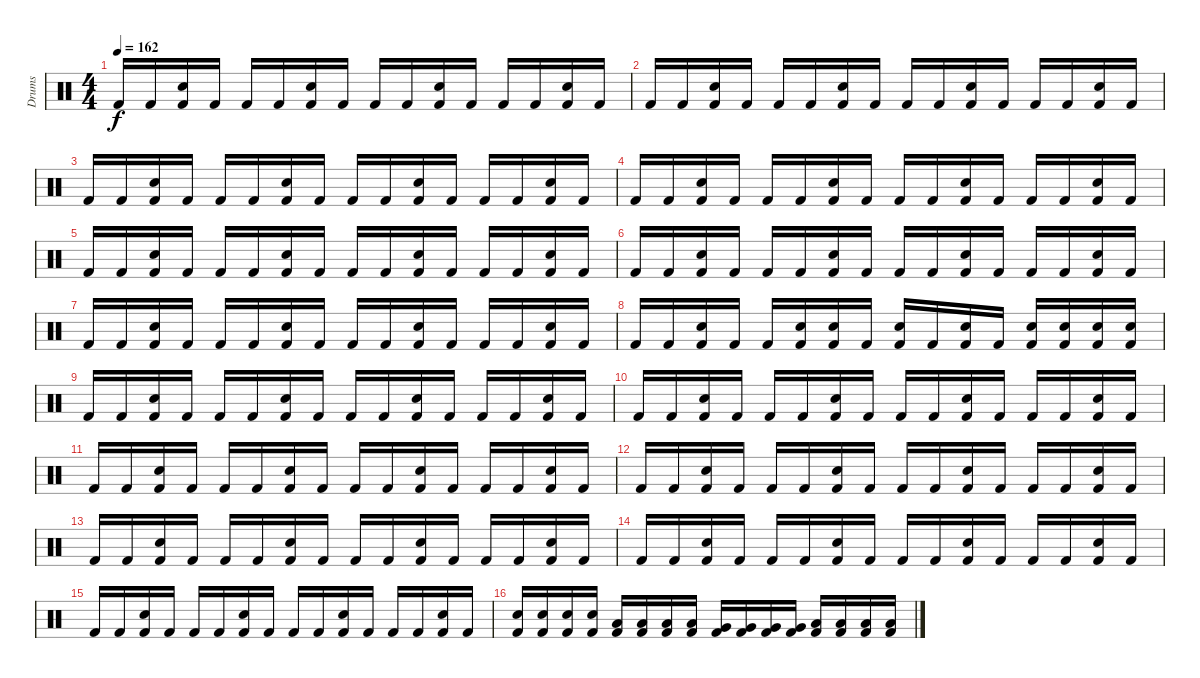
\track ("Drums" "Drums") {instrument percussion}
\staff {score}
\articulation defaults
\ts (4 4)
\tempo 162
\clef neutral
\ks c "Kick (hit) 2".16{dy f} "Kick (hit) 2".16
("Electric Snare (hit)" "Kick (hit) 2").16 "Kick (hit) 2".16 "Kick (hit) 2".16 "Kick (hit) 2".16 ("Electric Snare (hit)" "Kick (hit) 2").16 "Kick (hit) 2".16 "Kick (hit) 2".16 "Kick (hit) 2".16 ("Electric Snare (hit)" "Kick (hit) 2").16 "Kick (hit) 2".16 "Kick (hit) 2".16 "Kick (hit) 2".16 ("Electric Snare (hit)" "Kick (hit) 2").16 "Kick (hit) 2".16 |
"Kick (hit) 2".16 "Kick (hit) 2".16 ("Electric Snare (hit)" "Kick (hit) 2").16 "Kick (hit) 2".16 "Kick (hit) 2".16 "Kick (hit) 2".16 ("Electric Snare (hit)" "Kick (hit) 2").16 "Kick (hit) 2".16 "Kick (hit) 2".16 "Kick (hit) 2".16 ("Electric Snare (hit)" "Kick (hit) 2").16 "Kick (hit) 2".16 "Kick (hit) 2".16 "Kick (hit) 2".16 ("Electric Snare (hit)" "Kick (hit) 2").16 "Kick (hit) 2".16 |
"Kick (hit) 2".16 "Kick (hit) 2".16 ("Electric Snare (hit)" "Kick (hit) 2").16 "Kick (hit) 2".16 "Kick (hit) 2".16 "Kick (hit) 2".16 ("Electric Snare (hit)" "Kick (hit) 2").16 "Kick (hit) 2".16 "Kick (hit) 2".16 "Kick (hit) 2".16 ("Electric Snare (hit)" "Kick (hit) 2").16 "Kick (hit) 2".16 "Kick (hit) 2".16 "Kick (hit) 2".16 ("Electric Snare (hit)" "Kick (hit) 2").16 "Kick (hit) 2".16 |
"Kick (hit) 2".16 "Kick (hit) 2".16 ("Electric Snare (hit)" "Kick (hit) 2").16 "Kick (hit) 2".16 "Kick (hit) 2".16 "Kick (hit) 2".16 ("Electric Snare (hit)" "Kick (hit) 2").16 "Kick (hit) 2".16 "Kick (hit) 2".16 "Kick (hit) 2".16 ("Electric Snare (hit)" "Kick (hit) 2").16 "Kick (hit) 2".16 "Kick (hit) 2".16 "Kick (hit) 2".16 ("Electric Snare (hit)" "Kick (hit) 2").16 "Kick (hit) 2".16 |
"Kick (hit) 2".16 "Kick (hit) 2".16 ("Electric Snare (hit)" "Kick (hit) 2").16 "Kick (hit) 2".16 "Kick (hit) 2".16 "Kick (hit) 2".16 ("Electric Snare (hit)" "Kick (hit) 2").16 "Kick (hit) 2".16 "Kick (hit) 2".16 "Kick (hit) 2".16 ("Electric Snare (hit)" "Kick (hit) 2").16 "Kick (hit) 2".16 "Kick (hit) 2".16 "Kick (hit) 2".16 ("Electric Snare (hit)" "Kick (hit) 2").16 "Kick (hit) 2".16 |
"Kick (hit) 2".16 "Kick (hit) 2".16 ("Electric Snare (hit)" "Kick (hit) 2").16 "Kick (hit) 2".16 "Kick (hit) 2".16 "Kick (hit) 2".16 ("Electric Snare (hit)" "Kick (hit) 2").16 "Kick (hit) 2".16 "Kick (hit) 2".16 "Kick (hit) 2".16 ("Electric Snare (hit)" "Kick (hit) 2").16 "Kick (hit) 2".16 "Kick (hit) 2".16 "Kick (hit) 2".16 ("Electric Snare (hit)" "Kick (hit) 2").16 "Kick (hit) 2".16 |
"Kick (hit) 2".16 "Kick (hit) 2".16 ("Electric Snare (hit)" "Kick (hit) 2").16 "Kick (hit) 2".16 "Kick (hit) 2".16 "Kick (hit) 2".16 ("Electric Snare (hit)" "Kick (hit) 2").16 "Kick (hit) 2".16 "Kick (hit) 2".16 "Kick (hit) 2".16 ("Electric Snare (hit)" "Kick (hit) 2").16 "Kick (hit) 2".16 "Kick (hit) 2".16 "Kick (hit) 2".16 ("Electric Snare (hit)" "Kick (hit) 2").16 "Kick (hit) 2".16 |
"Kick (hit) 2".16 "Kick (hit) 2".16 ("Electric Snare (hit)" "Kick (hit) 2").16 "Kick (hit) 2".16 "Kick (hit) 2".16 ("Electric Snare (hit)" "Kick (hit) 2").16 ("Electric Snare (hit)" "Kick (hit) 2").16 "Kick (hit) 2".16 ("Electric Snare (hit)" "Kick (hit) 2").16 "Kick (hit) 2".16 ("Electric Snare (hit)" "Kick (hit) 2").16 "Kick (hit) 2".16 ("Electric Snare (hit)" "Kick (hit) 2").16 ("Electric Snare (hit)" "Kick (hit) 2").16 ("Electric Snare (hit)" "Kick (hit) 2").16 ("Electric Snare (hit)" "Kick (hit) 2").16 |
"Kick (hit) 2".16 "Kick (hit) 2".16 ("Electric Snare (hit)" "Kick (hit) 2").16 "Kick (hit) 2".16 "Kick (hit) 2".16 "Kick (hit) 2".16 ("Electric Snare (hit)" "Kick (hit) 2").16 "Kick (hit) 2".16 "Kick (hit) 2".16 "Kick (hit) 2".16 ("Electric Snare (hit)" "Kick (hit) 2").16 "Kick (hit) 2".16 "Kick (hit) 2".16 "Kick (hit) 2".16 ("Electric Snare (hit)" "Kick (hit) 2").16 "Kick (hit) 2".16 |
"Kick (hit) 2".16 "Kick (hit) 2".16 ("Electric Snare (hit)" "Kick (hit) 2").16 "Kick (hit) 2".16 "Kick (hit) 2".16 "Kick (hit) 2".16 ("Electric Snare (hit)" "Kick (hit) 2").16 "Kick (hit) 2".16 "Kick (hit) 2".16 "Kick (hit) 2".16 ("Electric Snare (hit)" "Kick (hit) 2").16 "Kick (hit) 2".16 "Kick (hit) 2".16 "Kick (hit) 2".16 ("Electric Snare (hit)" "Kick (hit) 2").16 "Kick (hit) 2".16 |
"Kick (hit) 2".16 "Kick (hit) 2".16 ("Electric Snare (hit)" "Kick (hit) 2").16 "Kick (hit) 2".16 "Kick (hit) 2".16 "Kick (hit) 2".16 ("Electric Snare (hit)" "Kick (hit) 2").16 "Kick (hit) 2".16 "Kick (hit) 2".16 "Kick (hit) 2".16 ("Electric Snare (hit)" "Kick (hit) 2").16 "Kick (hit) 2".16 "Kick (hit) 2".16 "Kick (hit) 2".16 ("Electric Snare (hit)" "Kick (hit) 2").16 "Kick (hit) 2".16 |
"Kick (hit) 2".16 "Kick (hit) 2".16 ("Electric Snare (hit)" "Kick (hit) 2").16 "Kick (hit) 2".16 "Kick (hit) 2".16 "Kick (hit) 2".16 ("Electric Snare (hit)" "Kick (hit) 2").16 "Kick (hit) 2".16 "Kick (hit) 2".16 "Kick (hit) 2".16 ("Electric Snare (hit)" "Kick (hit) 2").16 "Kick (hit) 2".16 "Kick (hit) 2".16 "Kick (hit) 2".16 ("Electric Snare (hit)" "Kick (hit) 2").16 "Kick (hit) 2".16 |
"Kick (hit) 2".16 "Kick (hit) 2".16 ("Electric Snare (hit)" "Kick (hit) 2").16 "Kick (hit) 2".16 "Kick (hit) 2".16 "Kick (hit) 2".16 ("Electric Snare (hit)" "Kick (hit) 2").16 "Kick (hit) 2".16 "Kick (hit) 2".16 "Kick (hit) 2".16 ("Electric Snare (hit)" "Kick (hit) 2").16 "Kick (hit) 2".16 "Kick (hit) 2".16 "Kick (hit) 2".16 ("Electric Snare (hit)" "Kick (hit) 2").16 "Kick (hit) 2".16 |
"Kick (hit) 2".16 "Kick (hit) 2".16 ("Electric Snare (hit)" "Kick (hit) 2").16 "Kick (hit) 2".16 "Kick (hit) 2".16 "Kick (hit) 2".16 ("Electric Snare (hit)" "Kick (hit) 2").16 "Kick (hit) 2".16 "Kick (hit) 2".16 "Kick (hit) 2".16 ("Electric Snare (hit)" "Kick (hit) 2").16 "Kick (hit) 2".16 "Kick (hit) 2".16 "Kick (hit) 2".16 ("Electric Snare (hit)" "Kick (hit) 2").16 "Kick (hit) 2".16 |
"Kick (hit) 2".16 "Kick (hit) 2".16 ("Electric Snare (hit)" "Kick (hit) 2").16 "Kick (hit) 2".16 "Kick (hit) 2".16 "Kick (hit) 2".16 ("Electric Snare (hit)" "Kick (hit) 2").16 "Kick (hit) 2".16 "Kick (hit) 2".16 "Kick (hit) 2".16 ("Electric Snare (hit)" "Kick (hit) 2").16 "Kick (hit) 2".16 "Kick (hit) 2".16 "Kick (hit) 2".16 ("Electric Snare (hit)" "Kick (hit) 2").16 "Kick (hit) 2".16 |
("Electric Snare (hit)" "Kick (hit) 2").16 ("Electric Snare (hit)" "Kick (hit) 2").16 ("Electric Snare (hit)" "Kick (hit) 2").16 ("Electric Snare (hit)" "Kick (hit) 2").16 ("Low Tom (hit)" "Kick (hit) 2").16 ("Low Tom (hit)" "Kick (hit) 2").16 ("Low Tom (hit)" "Kick (hit) 2").16 ("Low Tom (hit)" "Kick (hit) 2").16 ("Very Low Tom (hit)" "Kick (hit) 2").16 ("Very Low Tom (hit)" "Kick (hit) 2").16 ("Very Low Tom (hit)" "Kick (hit) 2").16 ("Very Low Tom (hit)" "Kick (hit) 2").16 ("Low Floor Tom (hit)" "Kick (hit) 2").16 ("Low Floor Tom (hit)" "Kick (hit) 2").16 ("Low Floor Tom (hit)" "Kick (hit) 2").16 ("Low Floor Tom (hit)" "Kick (hit) 2").16
